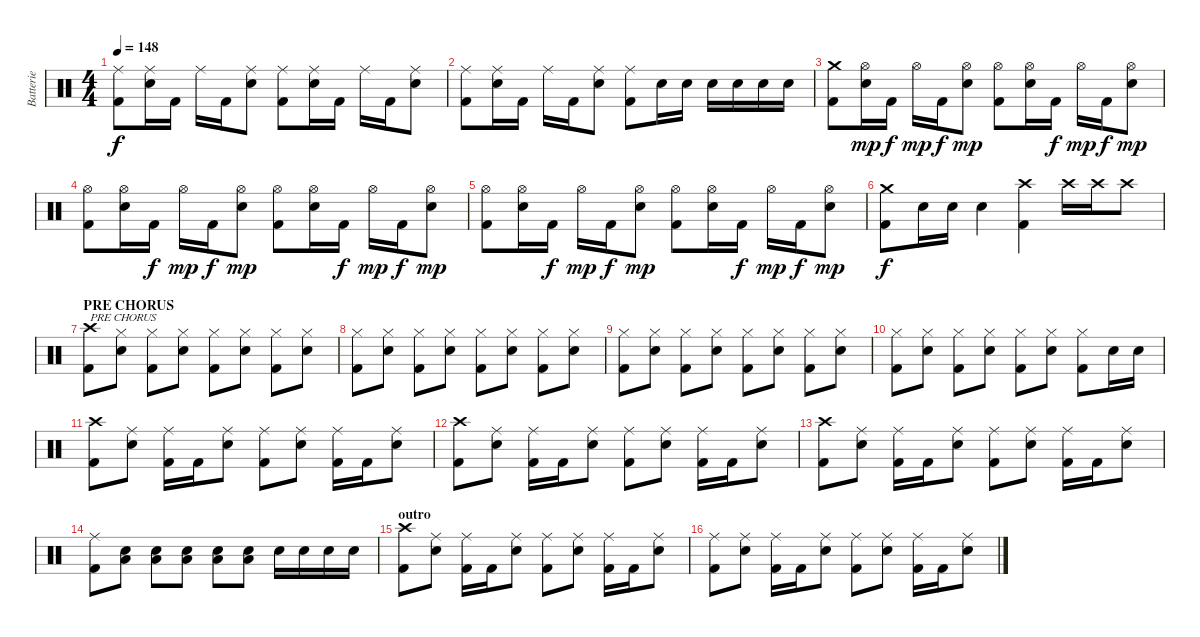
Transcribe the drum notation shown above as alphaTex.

\track ("Batterie" "Batterie") {instrument percussion}
\staff {score}
\articulation defaults
\ts (4 4)
\tempo 148
\clef neutral
\ks c
("Ride (middle)" "Kick (hit) 2").8{dy f} ("Ride (middle)" "Electric Snare (hit)").16 "Kick (hit) 2".16 "Ride (middle)".16 "Kick (hit) 2".16 ("Ride (middle)" "Electric Snare (hit)").8 ("Ride (middle)" "Kick (hit) 2").8 ("Ride (middle)" "Electric Snare (hit)").16 "Kick (hit) 2".16 "Ride (middle)".16 "Kick (hit) 2".16 ("Ride (middle)" "Electric Snare (hit)").8 |
("Ride (middle)" "Kick (hit) 2").8 ("Ride (middle)" "Electric Snare (hit)").16 "Kick (hit) 2".16 "Ride (middle)".16 "Kick (hit) 2".16 ("Ride (middle)" "Electric Snare (hit)").8 ("Ride (middle)" "Kick (hit) 2").8 "Electric Snare (hit)".16 "Electric Snare (hit)".16 "Electric Snare (hit)".16 "Electric Snare (hit)".16 "Electric Snare (hit)".16 "Electric Snare (hit)".16 |
("Crash medium (hit)" "Kick (hit) 2").8 ("Hi-Hat (open)" "Electric Snare (hit)").16{dy mp} "Kick (hit) 2".16{dy f} "Hi-Hat (open)".16{dy mp} "Kick (hit) 2".16{dy f} ("Hi-Hat (open)" "Electric Snare (hit)").8{dy mp} ("Hi-Hat (open)" "Kick (hit) 2").8 ("Hi-Hat (open)" "Electric Snare (hit)").16 "Kick (hit) 2".16{dy f} "Hi-Hat (open)".16{dy mp} "Kick (hit) 2".16{dy f} ("Hi-Hat (open)" "Electric Snare (hit)").8{dy mp} |
("Hi-Hat (open)" "Kick (hit) 2").8 ("Hi-Hat (open)" "Electric Snare (hit)").16 "Kick (hit) 2".16{dy f} "Hi-Hat (open)".16{dy mp} "Kick (hit) 2".16{dy f} ("Hi-Hat (open)" "Electric Snare (hit)").8{dy mp} ("Hi-Hat (open)" "Kick (hit) 2").8 ("Hi-Hat (open)" "Electric Snare (hit)").16 "Kick (hit) 2".16{dy f} "Hi-Hat (open)".16{dy mp} "Kick (hit) 2".16{dy f} ("Hi-Hat (open)" "Electric Snare (hit)").8{dy mp} |
("Hi-Hat (open)" "Kick (hit) 2").8 ("Hi-Hat (open)" "Electric Snare (hit)").16 "Kick (hit) 2".16{dy f} "Hi-Hat (open)".16{dy mp} "Kick (hit) 2".16{dy f} ("Hi-Hat (open)" "Electric Snare (hit)").8{dy mp} ("Hi-Hat (open)" "Kick (hit) 2").8 ("Hi-Hat (open)" "Electric Snare (hit)").16 "Kick (hit) 2".16{dy f} "Hi-Hat (open)".16{dy mp} "Kick (hit) 2".16{dy f} ("Hi-Hat (open)" "Electric Snare (hit)").8{dy mp} |
("Crash medium (hit)" "Kick (hit) 2").8{dy f} "Electric Snare (hit)".16 "Electric Snare (hit)".16 "Electric Snare (hit)".4 ("Crash high (hit)" "Kick (hit) 2").4 "Crash high (hit)".16 "Crash high (hit)".16 "Crash high (hit)".8 |
\section ("" "PRE CHORUS")
("Crash high (hit)" "Kick (hit) 2").8{txt "PRE CHORUS"} ("Hi-Hat (closed)" "Electric Snare (hit)").8 ("Hi-Hat (closed)" "Kick (hit) 2").8 ("Hi-Hat (closed)" "Electric Snare (hit)").8 ("Hi-Hat (closed)" "Kick (hit) 2").8 ("Hi-Hat (closed)" "Electric Snare (hit)").8 ("Hi-Hat (closed)" "Kick (hit) 2").8 ("Hi-Hat (closed)" "Electric Snare (hit)").8 |
("Hi-Hat (closed)" "Kick (hit) 2").8 ("Hi-Hat (closed)" "Electric Snare (hit)").8 ("Hi-Hat (closed)" "Kick (hit) 2").8 ("Hi-Hat (closed)" "Electric Snare (hit)").8 ("Hi-Hat (closed)" "Kick (hit) 2").8 ("Hi-Hat (closed)" "Electric Snare (hit)").8 ("Hi-Hat (closed)" "Kick (hit) 2").8 ("Hi-Hat (closed)" "Electric Snare (hit)").8 |
("Hi-Hat (closed)" "Kick (hit) 2").8 ("Hi-Hat (closed)" "Electric Snare (hit)").8 ("Hi-Hat (closed)" "Kick (hit) 2").8 ("Hi-Hat (closed)" "Electric Snare (hit)").8 ("Hi-Hat (closed)" "Kick (hit) 2").8 ("Hi-Hat (closed)" "Electric Snare (hit)").8 ("Hi-Hat (closed)" "Kick (hit) 2").8 ("Hi-Hat (closed)" "Electric Snare (hit)").8 |
("Hi-Hat (closed)" "Kick (hit) 2").8 ("Hi-Hat (closed)" "Electric Snare (hit)").8 ("Hi-Hat (closed)" "Kick (hit) 2").8 ("Hi-Hat (closed)" "Electric Snare (hit)").8 ("Hi-Hat (closed)" "Kick (hit) 2").8 ("Hi-Hat (closed)" "Electric Snare (hit)").8 ("Hi-Hat (closed)" "Kick (hit) 2").8 "Electric Snare (hit)".16 "Electric Snare (hit)".16 |
("Crash high (hit)" "Kick (hit) 2").8 ("Ride (middle)" "Electric Snare (hit)").8 ("Ride (middle)" "Kick (hit) 2").16 "Kick (hit) 2".16 ("Ride (middle)" "Electric Snare (hit)").8 ("Ride (middle)" "Kick (hit) 2").8 ("Ride (middle)" "Electric Snare (hit)").8 ("Ride (middle)" "Kick (hit) 2").16 "Kick (hit) 2".16 ("Ride (middle)" "Electric Snare (hit)").8 |
("Crash high (hit)" "Kick (hit) 2").8 ("Ride (middle)" "Electric Snare (hit)").8 ("Ride (middle)" "Kick (hit) 2").16 "Kick (hit) 2".16 ("Ride (middle)" "Electric Snare (hit)").8 ("Ride (middle)" "Kick (hit) 2").8 ("Ride (middle)" "Electric Snare (hit)").8 ("Ride (middle)" "Kick (hit) 2").16 "Kick (hit) 2".16 ("Ride (middle)" "Electric Snare (hit)").8 |
("Crash high (hit)" "Kick (hit) 2").8 ("Ride (middle)" "Electric Snare (hit)").8 ("Ride (middle)" "Kick (hit) 2").16 "Kick (hit) 2".16 ("Ride (middle)" "Electric Snare (hit)").8 ("Ride (middle)" "Kick (hit) 2").8 ("Ride (middle)" "Electric Snare (hit)").8 ("Ride (middle)" "Kick (hit) 2").16 "Kick (hit) 2".16 ("Ride (middle)" "Electric Snare (hit)").8 |
("Ride (middle)" "Kick (hit) 2").8 ("Low Floor Tom (hit)" "Electric Snare (hit)").8 ("Low Floor Tom (hit)" "Electric Snare (hit)").8 ("Low Floor Tom (hit)" "Electric Snare (hit)").8 ("Low Floor Tom (hit)" "Electric Snare (hit)").8 ("Low Floor Tom (hit)" "Electric Snare (hit)").8 "Electric Snare (hit)".16 "Electric Snare (hit)".16 "Electric Snare (hit)".16 "Electric Snare (hit)".16 |
\section ("" "outro")
("Crash high (hit)" "Kick (hit) 2").8 ("Ride (middle)" "Electric Snare (hit)").8 ("Ride (middle)" "Kick (hit) 2").16 "Kick (hit) 2".16 ("Ride (middle)" "Electric Snare (hit)").8 ("Ride (middle)" "Kick (hit) 2").8 ("Ride (middle)" "Electric Snare (hit)").8 ("Ride (middle)" "Kick (hit) 2").16 "Kick (hit) 2".16 ("Ride (middle)" "Electric Snare (hit)").8 |
("Ride (middle)" "Kick (hit) 2").8 ("Ride (middle)" "Electric Snare (hit)").8 ("Ride (middle)" "Kick (hit) 2").16 "Kick (hit) 2".16 ("Ride (middle)" "Electric Snare (hit)").8 ("Ride (middle)" "Kick (hit) 2").8 ("Ride (middle)" "Electric Snare (hit)").8 ("Ride (middle)" "Kick (hit) 2").16 "Kick (hit) 2".16 ("Ride (middle)" "Electric Snare (hit)").8
